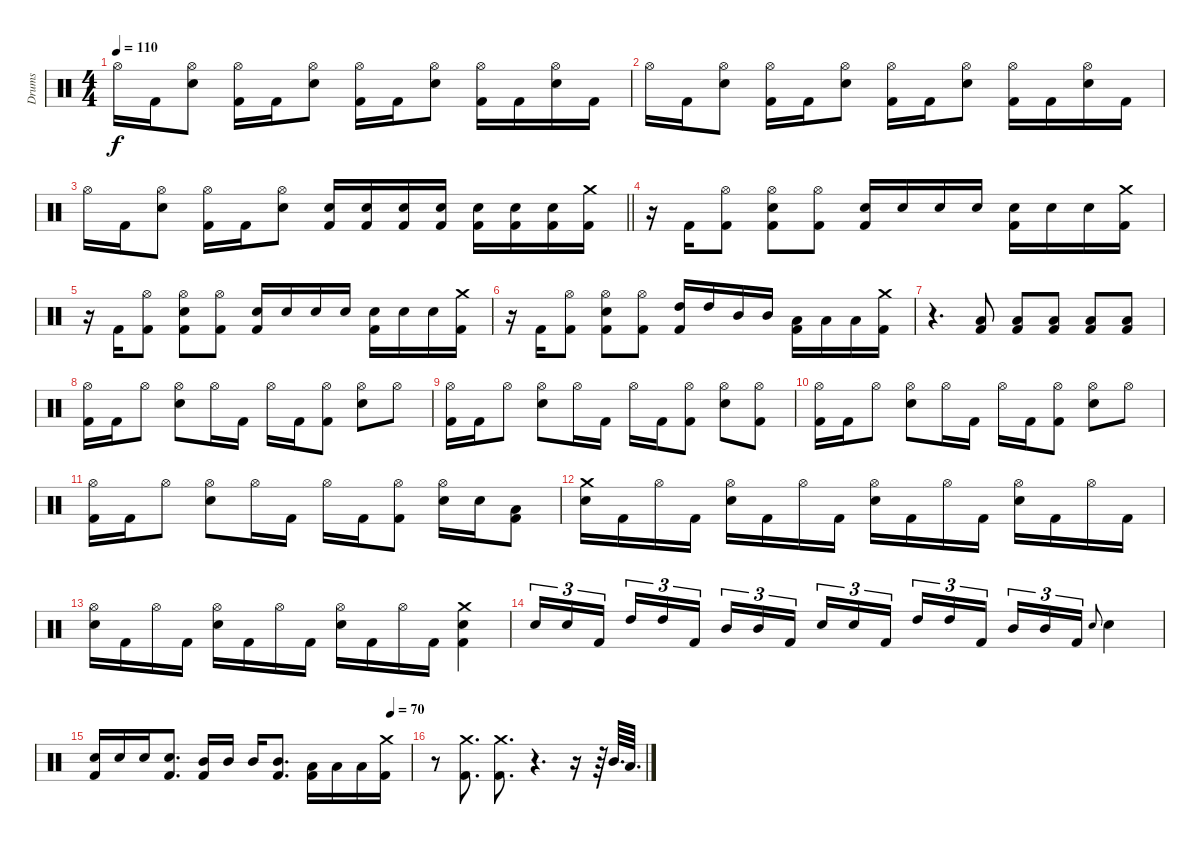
\track ("Drums" "Drums") {instrument percussion}
\staff {score}
\articulation defaults
\ts (4 4)
\tempo 110
\clef neutral
\ks c "Hi-Hat (open)".16{dy f} "Kick (hit) 2".16
("Hi-Hat (open)" "Snare (hit) 2").8 ("Hi-Hat (open)" "Kick (hit) 2").16 "Kick (hit) 2".16 ("Hi-Hat (open)" "Snare (hit) 2").8 ("Hi-Hat (open)" "Kick (hit) 2").16 "Kick (hit) 2".16 ("Hi-Hat (open)" "Snare (hit) 2").8 ("Hi-Hat (open)" "Kick (hit) 2").16 "Kick (hit) 2".16 ("Hi-Hat (open)" "Snare (hit) 2").16 "Kick (hit) 2".16 |
"Hi-Hat (open)".16 "Kick (hit) 2".16 ("Hi-Hat (open)" "Snare (hit) 2").8 ("Hi-Hat (open)" "Kick (hit) 2").16 "Kick (hit) 2".16 ("Hi-Hat (open)" "Snare (hit) 2").8 ("Hi-Hat (open)" "Kick (hit) 2").16 "Kick (hit) 2".16 ("Hi-Hat (open)" "Snare (hit) 2").8 ("Hi-Hat (open)" "Kick (hit) 2").16 "Kick (hit) 2".16 ("Hi-Hat (open)" "Snare (hit) 2").16 "Kick (hit) 2".16 |
\barLineRight lightlight "Hi-Hat (open)".16 "Kick (hit) 2".16
("Hi-Hat (open)" "Snare (hit) 2").8 ("Hi-Hat (open)" "Kick (hit) 2").16 "Kick (hit) 2".16 ("Hi-Hat (open)" "Snare (hit) 2").8 ("Snare (hit) 2" "Kick (hit) 2").16 ("Snare (hit) 2" "Kick (hit) 2").16 ("Snare (hit) 2" "Kick (hit) 2").16 ("Snare (hit) 2" "Kick (hit) 2").16 ("Snare (hit) 2" "Kick (hit) 2").16 ("Snare (hit) 2" "Kick (hit) 2").16 ("Snare (hit) 2" "Kick (hit) 2").16 ("Crash medium (hit)" "Kick (hit) 2").16 |
r.16 "Kick (hit) 2".16 ("Hi-Hat (open)" "Kick (hit) 2").8 ("Hi-Hat (open)" "Snare (hit) 2" "Kick (hit) 2").8 ("Hi-Hat (open)" "Kick (hit) 2").8 ("Snare (hit) 2" "Kick (hit) 2").16 "Snare (hit) 2".16 "Snare (hit) 2".16 "Snare (hit) 2".16 ("Snare (hit) 2" "Kick (hit) 2").16 "Snare (hit) 2".16 "Snare (hit) 2".16 ("Crash medium (hit)" "Kick (hit) 2").16 |
r.16 "Kick (hit) 2".16 ("Hi-Hat (open)" "Kick (hit) 2").8 ("Hi-Hat (open)" "Snare (hit) 2" "Kick (hit) 2").8 ("Hi-Hat (open)" "Kick (hit) 2").8 ("Snare (hit) 2" "Kick (hit) 2").16 "Snare (hit) 2".16 "Snare (hit) 2".16 "Snare (hit) 2".16 ("Snare (hit) 2" "Kick (hit) 2").16 "Snare (hit) 2".16 "Snare (hit) 2".16 ("Crash medium (hit)" "Kick (hit) 2").16 |
r.16 "Kick (hit) 2".16 ("Hi-Hat (open)" "Kick (hit) 2").8 ("Hi-Hat (open)" "Snare (hit) 2" "Kick (hit) 2").8 ("Hi-Hat (open)" "Kick (hit) 2").8 ("High Tom (hit)" "Kick (hit) 2").16 "High Tom (hit)".16 "Mid Tom (hit)".16 "Mid Tom (hit)".16 ("Low Tom (hit)" "Kick (hit) 2").16 "Low Tom (hit)".16 "Low Tom (hit)".16 ("Crash medium (hit)" "Kick (hit) 2").16 |
r.4{d} ("Low Tom (hit)" "Kick (hit) 2").8{volume 9} ("Low Tom (hit)" "Kick (hit) 2").8{volume 14} ("Low Tom (hit)" "Kick (hit) 2").8 ("Low Tom (hit)" "Kick (hit) 2").8 ("Low Tom (hit)" "Kick (hit) 2").8 |
("Hi-Hat (open)" "Kick (hit) 2").16 "Kick (hit) 2".16 "Hi-Hat (open)".8 ("Hi-Hat (open)" "Snare (hit) 2").8 "Hi-Hat (open)".16 "Kick (hit) 2".16 "Hi-Hat (open)".16 "Kick (hit) 2".16 ("Hi-Hat (open)" "Kick (hit) 2").8 ("Hi-Hat (open)" "Snare (hit) 2").8 "Hi-Hat (open)".8 |
("Hi-Hat (open)" "Kick (hit) 2").16 "Kick (hit) 2".16 "Hi-Hat (open)".8 ("Hi-Hat (open)" "Snare (hit) 2").8 "Hi-Hat (open)".16 "Kick (hit) 2".16 "Hi-Hat (open)".16 "Kick (hit) 2".16 ("Hi-Hat (open)" "Kick (hit) 2").8 ("Hi-Hat (open)" "Snare (hit) 2").8 ("Hi-Hat (open)" "Kick (hit) 2").8 |
("Hi-Hat (open)" "Kick (hit) 2").16 "Kick (hit) 2".16 "Hi-Hat (open)".8 ("Hi-Hat (open)" "Snare (hit) 2").8 "Hi-Hat (open)".16 "Kick (hit) 2".16 "Hi-Hat (open)".16 "Kick (hit) 2".16 ("Hi-Hat (open)" "Kick (hit) 2").8 ("Hi-Hat (open)" "Snare (hit) 2").8 "Hi-Hat (open)".8 |
("Hi-Hat (open)" "Kick (hit) 2").16 "Kick (hit) 2".16 "Hi-Hat (open)".8 ("Hi-Hat (open)" "Snare (hit) 2").8 "Hi-Hat (open)".16 "Kick (hit) 2".16 "Hi-Hat (open)".16 "Kick (hit) 2".16 ("Hi-Hat (open)" "Kick (hit) 2").8 ("Hi-Hat (open)" "Snare (hit) 2").16 "Snare (hit) 2".16 ("Low Tom (hit)" "Kick (hit) 2").8 |
("Crash medium (hit)" "Snare (hit) 2").16 "Kick (hit) 2".16 "Hi-Hat (open)".16 "Kick (hit) 2".16 ("Hi-Hat (open)" "Snare (hit) 2").16 "Kick (hit) 2".16 "Hi-Hat (open)".16 "Kick (hit) 2".16 ("Hi-Hat (open)" "Snare (hit) 2").16 "Kick (hit) 2".16 "Hi-Hat (open)".16 "Kick (hit) 2".16 ("Hi-Hat (open)" "Snare (hit) 2").16 "Kick (hit) 2".16 "Hi-Hat (open)".16 "Kick (hit) 2".16 |
("Hi-Hat (open)" "Snare (hit) 2").16 "Kick (hit) 2".16 "Hi-Hat (open)".16 "Kick (hit) 2".16 ("Hi-Hat (open)" "Snare (hit) 2").16 "Kick (hit) 2".16 "Hi-Hat (open)".16 "Kick (hit) 2".16 ("Hi-Hat (open)" "Snare (hit) 2").16 "Kick (hit) 2".16 "Hi-Hat (open)".16 "Kick (hit) 2".16 ("Crash medium (hit)" "Snare (hit) 2" "Kick (hit) 2").4 |
"Snare (hit) 2".16{tu (3 2)} "Snare (hit) 2".16{tu (3 2)} "Kick (hit) 2".16{tu (3 2) beam splitsecondary} "High Tom (hit)".16{tu (3 2)} "High Tom (hit)".16{tu (3 2)} "Kick (hit) 2".16{tu (3 2)} "Mid Tom (hit)".16{tu (3 2)} "Mid Tom (hit)".16{tu (3 2)} "Kick (hit) 2".16{tu (3 2) beam splitsecondary} "Snare (hit) 2".16{tu (3 2)} "Snare (hit) 2".16{tu (3 2)} "Kick (hit) 2".16{tu (3 2)} "High Tom (hit)".16{tu (3 2)} "High Tom (hit)".16{tu (3 2)} "Kick (hit) 2".16{tu (3 2) beam splitsecondary} "Mid Tom (hit)".16{tu (3 2)} "Mid Tom (hit)".16{tu (3 2)} "Kick (hit) 2".16{tu (3 2)} "Snare (hit) 2".8{gr onbeat} "Snare (hit) 2".4 |
\tempo (70 0.9375)
("Snare (hit) 2" "Kick (hit) 2").16 "Snare (hit) 2".16 "Snare (hit) 2".16 ("Snare (hit) 2" "Kick (hit) 2").8{d} ("Mid Tom (hit)" "Kick (hit) 2").16 "Mid Tom (hit)".16 "Mid Tom (hit)".16 ("Mid Tom (hit)" "Kick (hit) 2").8{d} ("Low Tom (hit)" "Kick (hit) 2").16 "Low Tom (hit)".16 "Low Tom (hit)".16 ("Crash medium (hit)" "Kick (hit) 2").16 |
r.8 ("Crash medium (hit)" "Kick (hit) 2").8{d} ("Crash medium (hit)" "Kick (hit) 2").8{d} r.4{d} r.16 r.64 "Mid Tom (hit)".64{d} "Low Tom (hit)".64{d}
